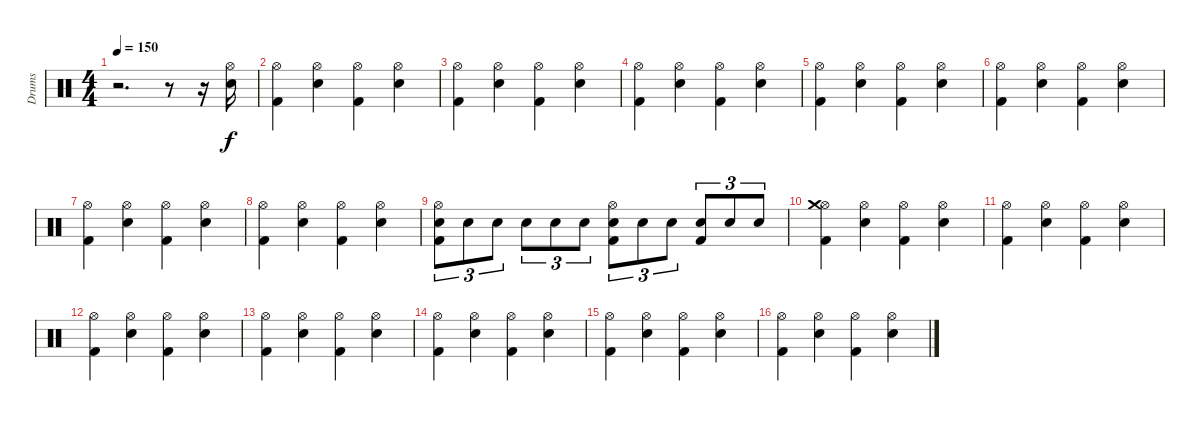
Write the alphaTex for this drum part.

\track ("Drums" "Drums") {instrument percussion}
\staff {score}
\articulation defaults
\ts (4 4)
\tempo 150
\clef neutral
\ks c
r.2{d dy f} r.8 r.16 ("Hi-Hat (open)" "Snare (hit) 2").16 |
("Hi-Hat (open)" "Kick (hit) 2").4 ("Hi-Hat (open)" "Snare (hit) 2").4 ("Hi-Hat (open)" "Kick (hit) 2").4 ("Hi-Hat (open)" "Snare (hit) 2").4 |
("Hi-Hat (open)" "Kick (hit) 2").4 ("Hi-Hat (open)" "Snare (hit) 2").4 ("Hi-Hat (open)" "Kick (hit) 2").4 ("Hi-Hat (open)" "Snare (hit) 2").4 |
("Hi-Hat (open)" "Kick (hit) 2").4 ("Hi-Hat (open)" "Snare (hit) 2").4 ("Hi-Hat (open)" "Kick (hit) 2").4 ("Hi-Hat (open)" "Snare (hit) 2").4 |
("Hi-Hat (open)" "Kick (hit) 2").4 ("Hi-Hat (open)" "Snare (hit) 2").4 ("Hi-Hat (open)" "Kick (hit) 2").4 ("Hi-Hat (open)" "Snare (hit) 2").4 |
("Hi-Hat (open)" "Kick (hit) 2").4 ("Hi-Hat (open)" "Snare (hit) 2").4 ("Hi-Hat (open)" "Kick (hit) 2").4 ("Hi-Hat (open)" "Snare (hit) 2").4 |
("Hi-Hat (open)" "Kick (hit) 2").4 ("Hi-Hat (open)" "Snare (hit) 2").4 ("Hi-Hat (open)" "Kick (hit) 2").4 ("Hi-Hat (open)" "Snare (hit) 2").4 |
("Hi-Hat (open)" "Kick (hit) 2").4 ("Hi-Hat (open)" "Snare (hit) 2").4 ("Hi-Hat (open)" "Kick (hit) 2").4 ("Hi-Hat (open)" "Snare (hit) 2").4 |
("Hi-Hat (open)" "Snare (hit) 2" "Kick (hit) 2").8{tu (3 2)} "Snare (hit) 2".8{tu (3 2)} "Snare (hit) 2".8{tu (3 2)} "Snare (hit) 2".8{tu (3 2)} "Snare (hit) 2".8{tu (3 2)} "Snare (hit) 2".8{tu (3 2)} ("Hi-Hat (open)" "Snare (hit) 2" "Kick (hit) 2").8{tu (3 2)} "Snare (hit) 2".8{tu (3 2)} "Snare (hit) 2".8{tu (3 2)} ("Snare (hit) 2" "Kick (hit) 2").8{tu (3 2)} "Snare (hit) 2".8{tu (3 2)} "Snare (hit) 2".8{tu (3 2)} |
("Hi-Hat (open)" "Crash medium (hit)" "Kick (hit) 2").4 ("Hi-Hat (open)" "Snare (hit) 2").4 ("Hi-Hat (open)" "Kick (hit) 2").4 ("Hi-Hat (open)" "Snare (hit) 2").4 |
("Hi-Hat (open)" "Kick (hit) 2").4 ("Hi-Hat (open)" "Snare (hit) 2").4 ("Hi-Hat (open)" "Kick (hit) 2").4 ("Hi-Hat (open)" "Snare (hit) 2").4 |
("Hi-Hat (open)" "Kick (hit) 2").4 ("Hi-Hat (open)" "Snare (hit) 2").4 ("Hi-Hat (open)" "Kick (hit) 2").4 ("Hi-Hat (open)" "Snare (hit) 2").4 |
("Hi-Hat (open)" "Kick (hit) 2").4 ("Hi-Hat (open)" "Snare (hit) 2").4 ("Hi-Hat (open)" "Kick (hit) 2").4 ("Hi-Hat (open)" "Snare (hit) 2").4 |
("Hi-Hat (open)" "Kick (hit) 2").4 ("Hi-Hat (open)" "Snare (hit) 2").4 ("Hi-Hat (open)" "Kick (hit) 2").4 ("Hi-Hat (open)" "Snare (hit) 2").4 |
("Hi-Hat (open)" "Kick (hit) 2").4 ("Hi-Hat (open)" "Snare (hit) 2").4 ("Hi-Hat (open)" "Kick (hit) 2").4 ("Hi-Hat (open)" "Snare (hit) 2").4 |
("Hi-Hat (open)" "Kick (hit) 2").4 ("Hi-Hat (open)" "Snare (hit) 2").4 ("Hi-Hat (open)" "Kick (hit) 2").4 ("Hi-Hat (open)" "Snare (hit) 2").4
